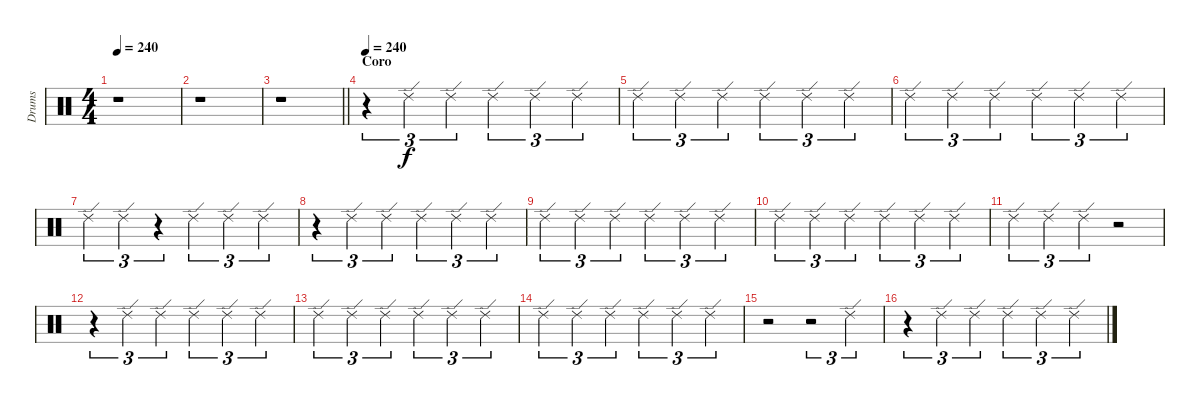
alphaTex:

\track ("Drums" "Drums") {instrument percussion}
\staff {score}
\articulation defaults
\ts (4 4)
\tempo 240
\clef neutral
\ks c
r.1{dy f} |
r.1 |
\barLineRight lightlight
r.1 |
\section ("" "Coro")
\tempo 240
r.4{tu (3 2)} "Ride (edge) 2".4{tu (3 2)} "Ride (edge) 2".4{tu (3 2)} "Ride (edge) 2".4{tu (3 2)} "Ride (edge) 2".4{tu (3 2)} "Ride (edge) 2".4{tu (3 2)} |
"Ride (edge) 2".4{tu (3 2)} "Ride (edge) 2".4{tu (3 2)} "Ride (edge) 2".4{tu (3 2)} "Ride (edge) 2".4{tu (3 2)} "Ride (edge) 2".4{tu (3 2)} "Ride (edge) 2".4{tu (3 2)} |
"Ride (edge) 2".4{tu (3 2)} "Ride (edge) 2".4{tu (3 2)} "Ride (edge) 2".4{tu (3 2)} "Ride (edge) 2".4{tu (3 2)} "Ride (edge) 2".4{tu (3 2)} "Ride (edge) 2".4{tu (3 2)} |
"Ride (edge) 2".4{tu (3 2)} "Ride (edge) 2".4{tu (3 2)} r.4{tu (3 2)} "Ride (edge) 2".4{tu (3 2)} "Ride (edge) 2".4{tu (3 2)} "Ride (edge) 2".4{tu (3 2)} |
r.4{tu (3 2)} "Ride (edge) 2".4{tu (3 2)} "Ride (edge) 2".4{tu (3 2)} "Ride (edge) 2".4{tu (3 2)} "Ride (edge) 2".4{tu (3 2)} "Ride (edge) 2".4{tu (3 2)} |
"Ride (edge) 2".4{tu (3 2)} "Ride (edge) 2".4{tu (3 2)} "Ride (edge) 2".4{tu (3 2)} "Ride (edge) 2".4{tu (3 2)} "Ride (edge) 2".4{tu (3 2)} "Ride (edge) 2".4{tu (3 2)} |
"Ride (edge) 2".4{tu (3 2)} "Ride (edge) 2".4{tu (3 2)} "Ride (edge) 2".4{tu (3 2)} "Ride (edge) 2".4{tu (3 2)} "Ride (edge) 2".4{tu (3 2)} "Ride (edge) 2".4{tu (3 2)} |
"Ride (edge) 2".4{tu (3 2)} "Ride (edge) 2".4{tu (3 2)} "Ride (edge) 2".4{tu (3 2)} r.2 |
r.4{tu (3 2)} "Ride (edge) 2".4{tu (3 2)} "Ride (edge) 2".4{tu (3 2)} "Ride (edge) 2".4{tu (3 2)} "Ride (edge) 2".4{tu (3 2)} "Ride (edge) 2".4{tu (3 2)} |
"Ride (edge) 2".4{tu (3 2)} "Ride (edge) 2".4{tu (3 2)} "Ride (edge) 2".4{tu (3 2)} "Ride (edge) 2".4{tu (3 2)} "Ride (edge) 2".4{tu (3 2)} "Ride (edge) 2".4{tu (3 2)} |
"Ride (edge) 2".4{tu (3 2)} "Ride (edge) 2".4{tu (3 2)} "Ride (edge) 2".4{tu (3 2)} "Ride (edge) 2".4{tu (3 2)} "Ride (edge) 2".4{tu (3 2)} "Ride (edge) 2".4{tu (3 2)} |
r.2 r.2{tu (3 2)} "Ride (edge) 2".4{tu (3 2)} |
r.4{tu (3 2)} "Ride (edge) 2".4{tu (3 2)} "Ride (edge) 2".4{tu (3 2)} "Ride (edge) 2".4{tu (3 2)} "Ride (edge) 2".4{tu (3 2)} "Ride (edge) 2".4{tu (3 2)}
